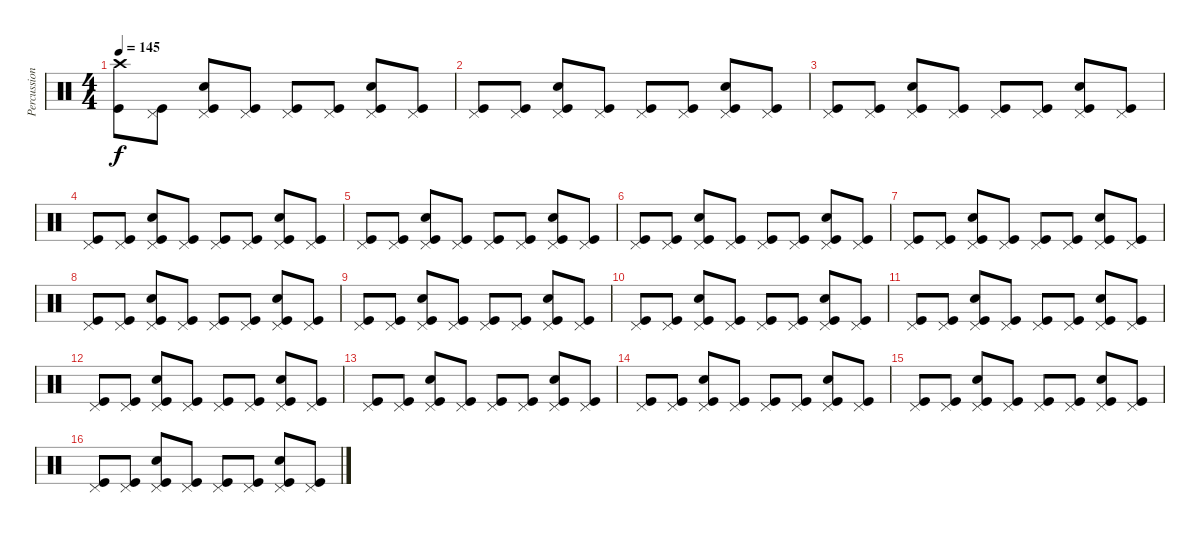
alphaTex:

\track ("Percussion" "Percussion") {instrument percussion}
\staff {score}
\articulation defaults
\ts (4 4)
\tempo 145
\clef neutral
\ks c
("Crash high (hit)" "Kick (hit)").8{dy f} ("Pedal Hi-Hat (hit)" "Kick (hit)").8 ("Pedal Hi-Hat (hit)" "Snare (hit) 2" "Kick (hit)").8 ("Pedal Hi-Hat (hit)" "Kick (hit)").8 ("Pedal Hi-Hat (hit)" "Kick (hit)").8 ("Pedal Hi-Hat (hit)" "Kick (hit)").8 ("Pedal Hi-Hat (hit)" "Snare (hit) 2" "Kick (hit)").8 ("Pedal Hi-Hat (hit)" "Kick (hit)").8 |
("Pedal Hi-Hat (hit)" "Kick (hit)").8 ("Pedal Hi-Hat (hit)" "Kick (hit)").8 ("Pedal Hi-Hat (hit)" "Snare (hit) 2" "Kick (hit)").8 ("Pedal Hi-Hat (hit)" "Kick (hit)").8 ("Pedal Hi-Hat (hit)" "Kick (hit)").8 ("Pedal Hi-Hat (hit)" "Kick (hit)").8 ("Pedal Hi-Hat (hit)" "Snare (hit) 2" "Kick (hit)").8 ("Pedal Hi-Hat (hit)" "Kick (hit)").8 |
("Pedal Hi-Hat (hit)" "Kick (hit)").8 ("Pedal Hi-Hat (hit)" "Kick (hit)").8 ("Pedal Hi-Hat (hit)" "Snare (hit) 2" "Kick (hit)").8 ("Pedal Hi-Hat (hit)" "Kick (hit)").8 ("Pedal Hi-Hat (hit)" "Kick (hit)").8 ("Pedal Hi-Hat (hit)" "Kick (hit)").8 ("Pedal Hi-Hat (hit)" "Snare (hit) 2" "Kick (hit)").8 ("Pedal Hi-Hat (hit)" "Kick (hit)").8 |
("Pedal Hi-Hat (hit)" "Kick (hit)").8 ("Pedal Hi-Hat (hit)" "Kick (hit)").8 ("Pedal Hi-Hat (hit)" "Snare (hit) 2" "Kick (hit)").8 ("Pedal Hi-Hat (hit)" "Kick (hit)").8 ("Pedal Hi-Hat (hit)" "Kick (hit)").8 ("Pedal Hi-Hat (hit)" "Kick (hit)").8 ("Pedal Hi-Hat (hit)" "Snare (hit) 2" "Kick (hit)").8 ("Pedal Hi-Hat (hit)" "Kick (hit)").8 |
("Pedal Hi-Hat (hit)" "Kick (hit)").8 ("Pedal Hi-Hat (hit)" "Kick (hit)").8 ("Pedal Hi-Hat (hit)" "Snare (hit) 2" "Kick (hit)").8 ("Pedal Hi-Hat (hit)" "Kick (hit)").8 ("Pedal Hi-Hat (hit)" "Kick (hit)").8 ("Pedal Hi-Hat (hit)" "Kick (hit)").8 ("Pedal Hi-Hat (hit)" "Snare (hit) 2" "Kick (hit)").8 ("Pedal Hi-Hat (hit)" "Kick (hit)").8 |
("Pedal Hi-Hat (hit)" "Kick (hit)").8 ("Pedal Hi-Hat (hit)" "Kick (hit)").8 ("Pedal Hi-Hat (hit)" "Snare (hit) 2" "Kick (hit)").8 ("Pedal Hi-Hat (hit)" "Kick (hit)").8 ("Pedal Hi-Hat (hit)" "Kick (hit)").8 ("Pedal Hi-Hat (hit)" "Kick (hit)").8 ("Pedal Hi-Hat (hit)" "Snare (hit) 2" "Kick (hit)").8 ("Pedal Hi-Hat (hit)" "Kick (hit)").8 |
("Pedal Hi-Hat (hit)" "Kick (hit)").8 ("Pedal Hi-Hat (hit)" "Kick (hit)").8 ("Pedal Hi-Hat (hit)" "Snare (hit) 2" "Kick (hit)").8 ("Pedal Hi-Hat (hit)" "Kick (hit)").8 ("Pedal Hi-Hat (hit)" "Kick (hit)").8 ("Pedal Hi-Hat (hit)" "Kick (hit)").8 ("Pedal Hi-Hat (hit)" "Snare (hit) 2" "Kick (hit)").8 ("Pedal Hi-Hat (hit)" "Kick (hit)").8 |
("Pedal Hi-Hat (hit)" "Kick (hit)").8 ("Pedal Hi-Hat (hit)" "Kick (hit)").8 ("Pedal Hi-Hat (hit)" "Snare (hit) 2" "Kick (hit)").8 ("Pedal Hi-Hat (hit)" "Kick (hit)").8 ("Pedal Hi-Hat (hit)" "Kick (hit)").8 ("Pedal Hi-Hat (hit)" "Kick (hit)").8 ("Pedal Hi-Hat (hit)" "Snare (hit) 2" "Kick (hit)").8 ("Pedal Hi-Hat (hit)" "Kick (hit)").8 |
("Pedal Hi-Hat (hit)" "Kick (hit)").8 ("Pedal Hi-Hat (hit)" "Kick (hit)").8 ("Pedal Hi-Hat (hit)" "Snare (hit) 2" "Kick (hit)").8 ("Pedal Hi-Hat (hit)" "Kick (hit)").8 ("Pedal Hi-Hat (hit)" "Kick (hit)").8 ("Pedal Hi-Hat (hit)" "Kick (hit)").8 ("Pedal Hi-Hat (hit)" "Snare (hit) 2" "Kick (hit)").8 ("Pedal Hi-Hat (hit)" "Kick (hit)").8 |
("Pedal Hi-Hat (hit)" "Kick (hit)").8 ("Pedal Hi-Hat (hit)" "Kick (hit)").8 ("Pedal Hi-Hat (hit)" "Snare (hit) 2" "Kick (hit)").8 ("Pedal Hi-Hat (hit)" "Kick (hit)").8 ("Pedal Hi-Hat (hit)" "Kick (hit)").8 ("Pedal Hi-Hat (hit)" "Kick (hit)").8 ("Pedal Hi-Hat (hit)" "Snare (hit) 2" "Kick (hit)").8 ("Pedal Hi-Hat (hit)" "Kick (hit)").8 |
("Pedal Hi-Hat (hit)" "Kick (hit)").8 ("Pedal Hi-Hat (hit)" "Kick (hit)").8 ("Pedal Hi-Hat (hit)" "Snare (hit) 2" "Kick (hit)").8 ("Pedal Hi-Hat (hit)" "Kick (hit)").8 ("Pedal Hi-Hat (hit)" "Kick (hit)").8 ("Pedal Hi-Hat (hit)" "Kick (hit)").8 ("Pedal Hi-Hat (hit)" "Snare (hit) 2" "Kick (hit)").8 ("Pedal Hi-Hat (hit)" "Kick (hit)").8 |
("Pedal Hi-Hat (hit)" "Kick (hit)").8 ("Pedal Hi-Hat (hit)" "Kick (hit)").8 ("Pedal Hi-Hat (hit)" "Snare (hit) 2" "Kick (hit)").8 ("Pedal Hi-Hat (hit)" "Kick (hit)").8 ("Pedal Hi-Hat (hit)" "Kick (hit)").8 ("Pedal Hi-Hat (hit)" "Kick (hit)").8 ("Pedal Hi-Hat (hit)" "Snare (hit) 2" "Kick (hit)").8 ("Pedal Hi-Hat (hit)" "Kick (hit)").8 |
("Pedal Hi-Hat (hit)" "Kick (hit)").8 ("Pedal Hi-Hat (hit)" "Kick (hit)").8 ("Pedal Hi-Hat (hit)" "Snare (hit) 2" "Kick (hit)").8 ("Pedal Hi-Hat (hit)" "Kick (hit)").8 ("Pedal Hi-Hat (hit)" "Kick (hit)").8 ("Pedal Hi-Hat (hit)" "Kick (hit)").8 ("Pedal Hi-Hat (hit)" "Snare (hit) 2" "Kick (hit)").8 ("Pedal Hi-Hat (hit)" "Kick (hit)").8 |
("Pedal Hi-Hat (hit)" "Kick (hit)").8 ("Pedal Hi-Hat (hit)" "Kick (hit)").8 ("Pedal Hi-Hat (hit)" "Snare (hit) 2" "Kick (hit)").8 ("Pedal Hi-Hat (hit)" "Kick (hit)").8 ("Pedal Hi-Hat (hit)" "Kick (hit)").8 ("Pedal Hi-Hat (hit)" "Kick (hit)").8 ("Pedal Hi-Hat (hit)" "Snare (hit) 2" "Kick (hit)").8 ("Pedal Hi-Hat (hit)" "Kick (hit)").8 |
("Pedal Hi-Hat (hit)" "Kick (hit)").8 ("Pedal Hi-Hat (hit)" "Kick (hit)").8 ("Pedal Hi-Hat (hit)" "Snare (hit) 2" "Kick (hit)").8 ("Pedal Hi-Hat (hit)" "Kick (hit)").8 ("Pedal Hi-Hat (hit)" "Kick (hit)").8 ("Pedal Hi-Hat (hit)" "Kick (hit)").8 ("Pedal Hi-Hat (hit)" "Snare (hit) 2" "Kick (hit)").8 ("Pedal Hi-Hat (hit)" "Kick (hit)").8 |
("Pedal Hi-Hat (hit)" "Kick (hit)").8 ("Pedal Hi-Hat (hit)" "Kick (hit)").8 ("Pedal Hi-Hat (hit)" "Snare (hit) 2" "Kick (hit)").8 ("Pedal Hi-Hat (hit)" "Kick (hit)").8 ("Pedal Hi-Hat (hit)" "Kick (hit)").8 ("Pedal Hi-Hat (hit)" "Kick (hit)").8 ("Pedal Hi-Hat (hit)" "Snare (hit) 2" "Kick (hit)").8 ("Pedal Hi-Hat (hit)" "Kick (hit)").8
